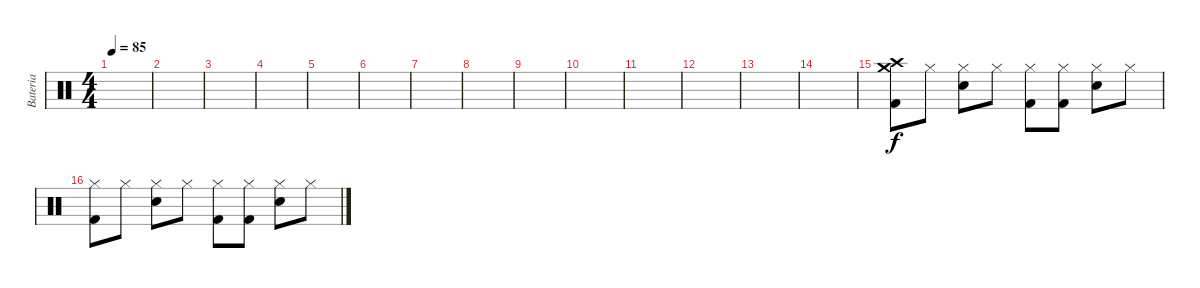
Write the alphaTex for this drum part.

\track ("Bateria" "Bateria") {instrument percussion}
\staff {score}
\articulation defaults
\ts (4 4)
\tempo 85
\clef neutral
\ks c
|
|
|
|
|
|
|
|
|
|
|
|
|
|
("Crash high (hit)" "Crash medium (hit)" "Kick (hit) 2").8 "Hi-Hat (closed)".8 ("Hi-Hat (closed)" "Electric Snare (hit)").8 "Hi-Hat (closed)".8 ("Hi-Hat (closed)" "Kick (hit) 2").8 ("Hi-Hat (closed)" "Kick (hit) 2").8 ("Hi-Hat (closed)" "Electric Snare (hit)").8 "Hi-Hat (closed)".8 |
("Hi-Hat (closed)" "Kick (hit) 2").8 "Hi-Hat (closed)".8 ("Hi-Hat (closed)" "Electric Snare (hit)").8 "Hi-Hat (closed)".8 ("Hi-Hat (closed)" "Kick (hit) 2").8 ("Hi-Hat (closed)" "Kick (hit) 2").8 ("Hi-Hat (closed)" "Electric Snare (hit)").8 "Hi-Hat (closed)".8
